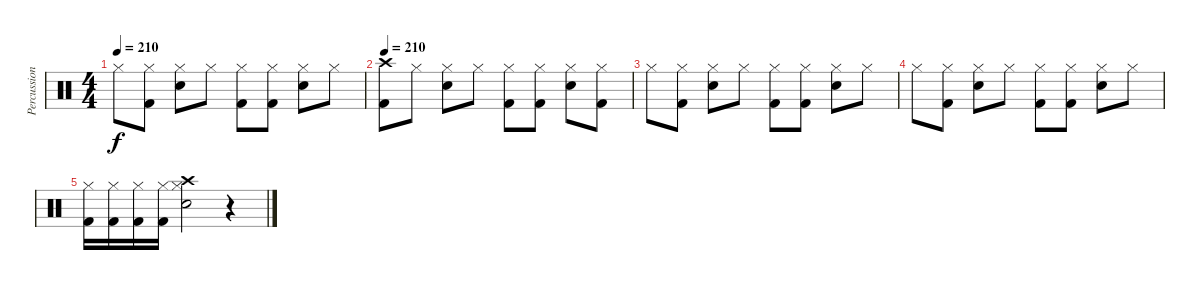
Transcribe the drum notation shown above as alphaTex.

\track ("Percussion" "Percussion") {instrument percussion}
\staff {score}
\articulation defaults
\ts (4 4)
\tempo 210
\clef neutral
\ks c "Hi-Hat (closed)".8{dy f}
("Kick (hit) 2" "Hi-Hat (closed)").8 ("Snare (hit) 2" "Hi-Hat (closed)").8 "Hi-Hat (closed)".8 ("Kick (hit) 2" "Hi-Hat (closed)").8 ("Kick (hit) 2" "Hi-Hat (closed)").8 ("Snare (hit) 2" "Hi-Hat (closed)").8 "Hi-Hat (closed)".8 |
\tempo 210
("Kick (hit) 2" "Crash high (hit)").8 "Hi-Hat (closed)".8 ("Snare (hit) 2" "Hi-Hat (closed)").8 "Hi-Hat (closed)".8 ("Kick (hit) 2" "Hi-Hat (closed)").8 ("Kick (hit) 2" "Hi-Hat (closed)").8 ("Snare (hit) 2" "Hi-Hat (closed)").8 ("Kick (hit) 2" "Hi-Hat (closed)").8 |
"Hi-Hat (closed)".8 ("Kick (hit) 2" "Hi-Hat (closed)").8 ("Snare (hit) 2" "Hi-Hat (closed)").8 "Hi-Hat (closed)".8 ("Kick (hit) 2" "Hi-Hat (closed)").8 ("Kick (hit) 2" "Hi-Hat (closed)").8 ("Snare (hit) 2" "Hi-Hat (closed)").8 "Hi-Hat (closed)".8 |
"Hi-Hat (closed)".8 ("Kick (hit) 2" "Hi-Hat (closed)").8 ("Snare (hit) 2" "Hi-Hat (closed)").8 "Hi-Hat (closed)".8 ("Kick (hit) 2" "Hi-Hat (closed)").8 ("Kick (hit) 2" "Hi-Hat (closed)").8 ("Snare (hit) 2" "Hi-Hat (closed)").8 "Hi-Hat (closed)".8 |
("Kick (hit) 2" "Hi-Hat (closed)").16 ("Kick (hit) 2" "Hi-Hat (closed)").16 ("Kick (hit) 2" "Hi-Hat (closed)").16 ("Kick (hit) 2" "Hi-Hat (closed)").16 ("Snare (hit) 2" "Hi-Hat (closed)" "Crash high (hit)").2 r.4
